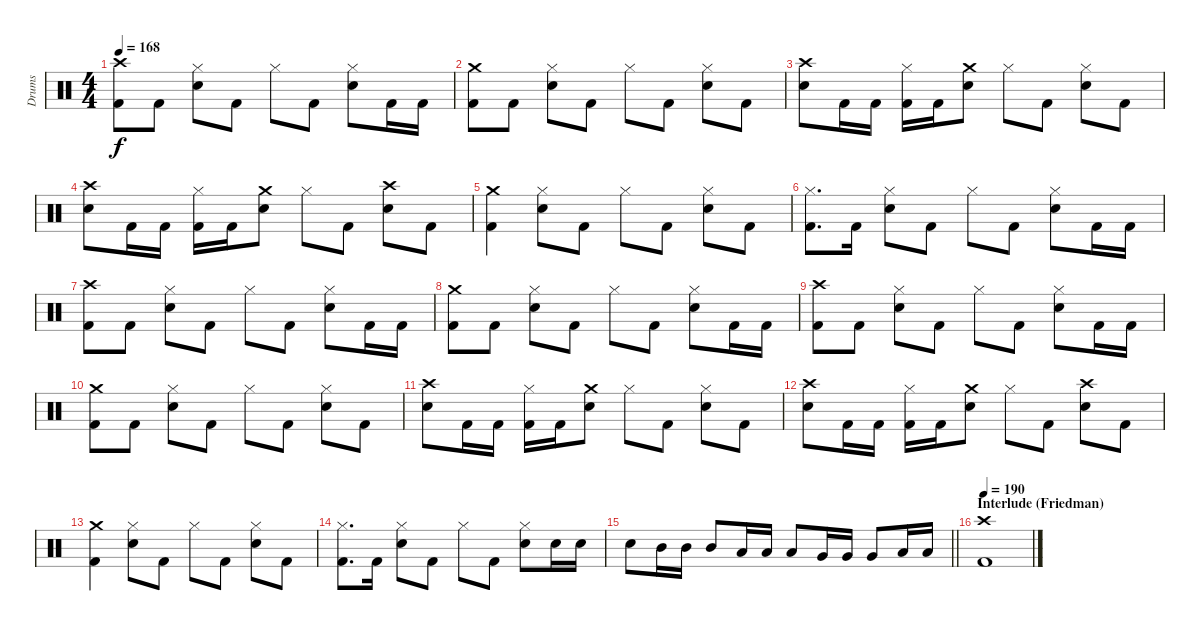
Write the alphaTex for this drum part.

\track ("Drums" "Drums") {instrument percussion}
\staff {score}
\articulation defaults
\ts (4 4)
\tempo 168
\clef neutral
\ks c
("Crash high (hit)" "Kick (hit) 2").8{dy f} "Kick (hit) 2".8 ("Hi-Hat (closed)" "Snare (hit) 2").8 "Kick (hit) 2".8 "Hi-Hat (closed)".8 "Kick (hit) 2".8 ("Hi-Hat (closed)" "Snare (hit) 2").8 "Kick (hit) 2".16 "Kick (hit) 2".16 |
("Crash medium (hit)" "Kick (hit) 2").8 "Kick (hit) 2".8 ("Hi-Hat (closed)" "Snare (hit) 2").8 "Kick (hit) 2".8 "Hi-Hat (closed)".8 "Kick (hit) 2".8 ("Hi-Hat (closed)" "Snare (hit) 2").8 "Kick (hit) 2".8 |
("Crash high (hit)" "Snare (hit) 2").8 "Kick (hit) 2".16 "Kick (hit) 2".16 ("Hi-Hat (closed)" "Kick (hit) 2").16 "Kick (hit) 2".16 ("Crash medium (hit)" "Snare (hit) 2").8 "Hi-Hat (closed)".8 "Kick (hit) 2".8 ("Hi-Hat (closed)" "Snare (hit) 2").8 "Kick (hit) 2".8 |
("Crash high (hit)" "Snare (hit) 2").8 "Kick (hit) 2".16 "Kick (hit) 2".16 ("Hi-Hat (closed)" "Kick (hit) 2").16 "Kick (hit) 2".16 ("Crash medium (hit)" "Snare (hit) 2").8 "Hi-Hat (closed)".8 "Kick (hit) 2".8 ("Crash high (hit)" "Snare (hit) 2").8 "Kick (hit) 2".8 |
("Crash medium (hit)" "Kick (hit) 2").4 ("Hi-Hat (closed)" "Snare (hit) 2").8 "Kick (hit) 2".8 "Hi-Hat (closed)".8 "Kick (hit) 2".8 ("Hi-Hat (closed)" "Snare (hit) 2").8 "Kick (hit) 2".8 |
("Hi-Hat (closed)" "Kick (hit) 2").8{d} "Kick (hit) 2".16 ("Hi-Hat (closed)" "Snare (hit) 2").8 "Kick (hit) 2".8 "Hi-Hat (closed)".8 "Kick (hit) 2".8 ("Hi-Hat (closed)" "Snare (hit) 2").8 "Kick (hit) 2".16 "Kick (hit) 2".16 |
("Crash high (hit)" "Kick (hit) 2").8 "Kick (hit) 2".8 ("Hi-Hat (closed)" "Snare (hit) 2").8 "Kick (hit) 2".8 "Hi-Hat (closed)".8 "Kick (hit) 2".8 ("Hi-Hat (closed)" "Snare (hit) 2").8 "Kick (hit) 2".16 "Kick (hit) 2".16 |
("Crash medium (hit)" "Kick (hit) 2").8 "Kick (hit) 2".8 ("Hi-Hat (closed)" "Snare (hit) 2").8 "Kick (hit) 2".8 "Hi-Hat (closed)".8 "Kick (hit) 2".8 ("Hi-Hat (closed)" "Snare (hit) 2").8 "Kick (hit) 2".16 "Kick (hit) 2".16 |
("Crash high (hit)" "Kick (hit) 2").8 "Kick (hit) 2".8 ("Hi-Hat (closed)" "Snare (hit) 2").8 "Kick (hit) 2".8 "Hi-Hat (closed)".8 "Kick (hit) 2".8 ("Hi-Hat (closed)" "Snare (hit) 2").8 "Kick (hit) 2".16 "Kick (hit) 2".16 |
("Crash medium (hit)" "Kick (hit) 2").8 "Kick (hit) 2".8 ("Hi-Hat (closed)" "Snare (hit) 2").8 "Kick (hit) 2".8 "Hi-Hat (closed)".8 "Kick (hit) 2".8 ("Hi-Hat (closed)" "Snare (hit) 2").8 "Kick (hit) 2".8 |
("Crash high (hit)" "Snare (hit) 2").8 "Kick (hit) 2".16 "Kick (hit) 2".16 ("Hi-Hat (closed)" "Kick (hit) 2").16 "Kick (hit) 2".16 ("Crash medium (hit)" "Snare (hit) 2").8 "Hi-Hat (closed)".8 "Kick (hit) 2".8 ("Hi-Hat (closed)" "Snare (hit) 2").8 "Kick (hit) 2".8 |
("Crash high (hit)" "Snare (hit) 2").8 "Kick (hit) 2".16 "Kick (hit) 2".16 ("Hi-Hat (closed)" "Kick (hit) 2").16 "Kick (hit) 2".16 ("Crash medium (hit)" "Snare (hit) 2").8 "Hi-Hat (closed)".8 "Kick (hit) 2".8 ("Crash high (hit)" "Snare (hit) 2").8 "Kick (hit) 2".8 |
("Crash medium (hit)" "Kick (hit) 2").4 ("Hi-Hat (closed)" "Snare (hit) 2").8 "Kick (hit) 2".8 "Hi-Hat (closed)".8 "Kick (hit) 2".8 ("Hi-Hat (closed)" "Snare (hit) 2").8 "Kick (hit) 2".8 |
("Hi-Hat (closed)" "Kick (hit) 2").8{d} "Kick (hit) 2".16 ("Hi-Hat (closed)" "Snare (hit) 2").8 "Kick (hit) 2".8 "Hi-Hat (closed)".8 "Kick (hit) 2".8 ("Hi-Hat (closed)" "Snare (hit) 2").8 "Snare (hit) 2".16 "Snare (hit) 2".16 |
\barLineRight lightlight "Snare (hit) 2".8 "Mid Tom (hit)".16 "Mid Tom (hit)".16 "Mid Tom (hit)".8 "Low Tom (hit)".16 "Low Tom (hit)".16 "Low Tom (hit)".8 "Very Low Tom (hit)".16 "Very Low Tom (hit)".16 "Very Low Tom (hit)".8 "Low Floor Tom (hit)".16 "Low Floor Tom (hit)".16
|
\section ("" "Interlude (Friedman)")
\tempo 190
("Crash high (hit)" "Kick (hit) 2").1
